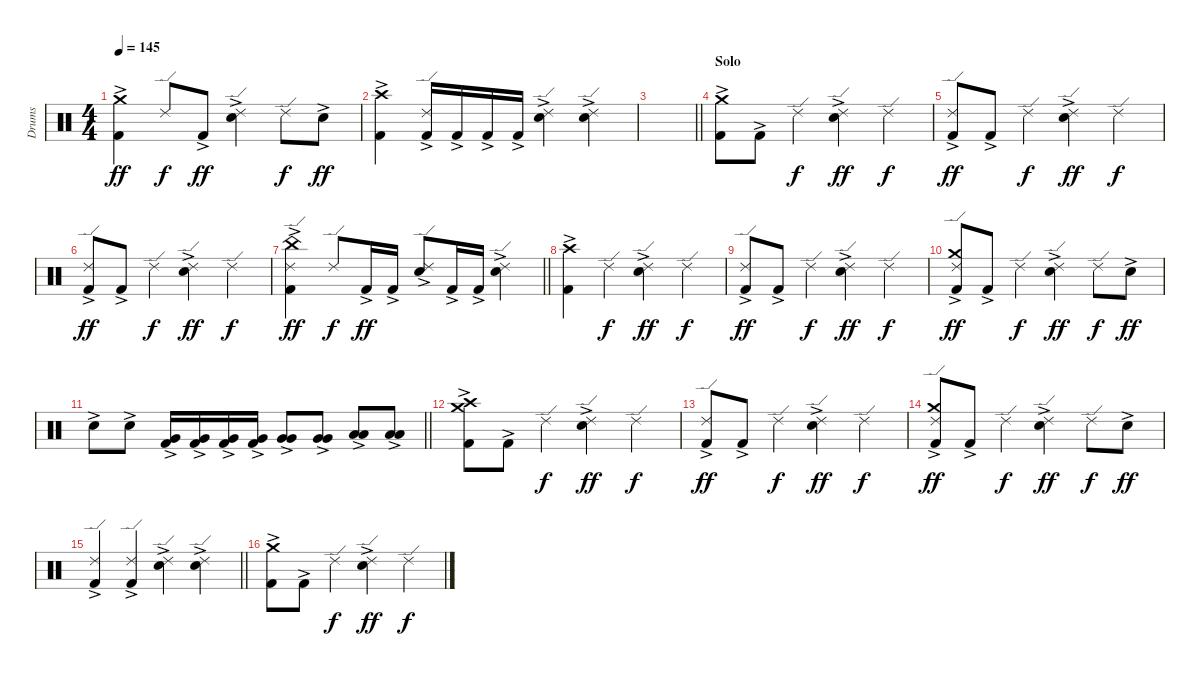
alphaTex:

\track ("Drums" "Drums") {instrument percussion}
\staff {score}
\articulation defaults
\ts (4 4)
\section ("" "")
\tempo 145
\clef neutral
\ks c
("Kick (hit) 2"{ac} "Crash medium (hit)").4{dy ff} "Ride (edge) 2".8{dy f} "Kick (hit) 2"{ac}.8{dy ff} ("Snare (hit) 2"{ac} "Ride (edge) 2").4 "Ride (edge) 2".8{dy f} "Snare (hit) 2"{ac}.8{dy ff} |
("Kick (hit) 2"{ac} "Crash high (hit)").4 ("Kick (hit) 2"{ac} "Ride (edge) 2").16 "Kick (hit) 2"{ac}.16 "Kick (hit) 2"{ac}.16 "Kick (hit) 2"{ac}.16 ("Snare (hit) 2"{ac} "Ride (edge) 2").4 ("Snare (hit) 2"{ac} "Ride (edge) 2").4 |
\barLineRight lightlight
|
\section ("" "Solo")
("Kick (hit) 2"{ac} "Crash medium (hit)").8 "Kick (hit) 2"{ac}.8 "Ride (edge) 2".4{dy f} ("Snare (hit) 2"{ac} "Ride (edge) 2").4{dy ff} "Ride (edge) 2".4{dy f} |
("Kick (hit) 2"{ac} "Ride (edge) 2").8{dy ff} "Kick (hit) 2"{ac}.8 "Ride (edge) 2".4{dy f} ("Snare (hit) 2"{ac} "Ride (edge) 2").4{dy ff} "Ride (edge) 2".4{dy f} |
("Kick (hit) 2"{ac} "Ride (edge) 2").8{dy ff} "Kick (hit) 2"{ac}.8 "Ride (edge) 2".4{dy f} ("Snare (hit) 2"{ac} "Ride (edge) 2").4{dy ff} "Ride (edge) 2".4{dy f} |
\barLineRight lightlight
("Kick (hit) 2"{ac} "Ride (edge) 2" "China (hit)").4{dy ff} "Ride (edge) 2".8{dy f} "Kick (hit) 2"{ac}.16{dy ff} "Kick (hit) 2"{ac}.16 ("Snare (hit) 2"{ac} "Ride (edge) 2").8 "Kick (hit) 2"{ac}.16 "Kick (hit) 2"{ac}.16 ("Snare (hit) 2"{ac} "Ride (edge) 2").4 |
\section ("" "")
("Kick (hit) 2"{ac} "Crash high (hit)").4 "Ride (edge) 2".4{dy f} ("Snare (hit) 2"{ac} "Ride (edge) 2").4{dy ff} "Ride (edge) 2".4{dy f} |
("Kick (hit) 2"{ac} "Ride (edge) 2").8{dy ff} "Kick (hit) 2"{ac}.8 "Ride (edge) 2".4{dy f} ("Snare (hit) 2"{ac} "Ride (edge) 2").4{dy ff} "Ride (edge) 2".4{dy f} |
("Kick (hit) 2"{ac} "Ride (edge) 2" "Crash medium (hit)").8{dy ff} "Kick (hit) 2"{ac}.8 "Ride (edge) 2".4{dy f} ("Snare (hit) 2"{ac} "Ride (edge) 2").4{dy ff} "Ride (edge) 2".8{dy f} "Snare (hit) 2"{ac}.8{dy ff} |
\barLineRight lightlight "Snare (hit) 2"{ac}.8 "Snare (hit) 2"{ac}.8
("Kick (hit) 2"{ac} "Very Low Tom (hit)").16 ("Kick (hit) 2"{ac} "Very Low Tom (hit)").16 ("Kick (hit) 2"{ac} "Very Low Tom (hit)").16 ("Kick (hit) 2"{ac} "Very Low Tom (hit)").16 ("Very Low Tom (hit)" "Very Low Tom (hit)"{ac}).8 ("Very Low Tom (hit)" "Very Low Tom (hit)"{ac}).8 ("Low Floor Tom (hit)" "Low Floor Tom (hit)"{ac}).8 ("Low Floor Tom (hit)" "Low Floor Tom (hit)"{ac}).8 |
\section ("" "")
("Kick (hit) 2"{ac} "Crash medium (hit)" "Crash high (hit)").8 "Kick (hit) 2"{ac}.8 "Ride (edge) 2".4{dy f} ("Snare (hit) 2"{ac} "Ride (edge) 2").4{dy ff} "Ride (edge) 2".4{dy f} |
("Kick (hit) 2"{ac} "Ride (edge) 2").8{dy ff} "Kick (hit) 2"{ac}.8 "Ride (edge) 2".4{dy f} ("Snare (hit) 2"{ac} "Ride (edge) 2").4{dy ff} "Ride (edge) 2".4{dy f} |
("Kick (hit) 2"{ac} "Ride (edge) 2" "Crash medium (hit)").8{dy ff} "Kick (hit) 2"{ac}.8 "Ride (edge) 2".4{dy f} ("Snare (hit) 2"{ac} "Ride (edge) 2").4{dy ff} "Ride (edge) 2".8{dy f} "Snare (hit) 2"{ac}.8{dy ff} |
\barLineRight lightlight
("Kick (hit) 2"{ac} "Ride (edge) 2").4 ("Kick (hit) 2"{ac} "Ride (edge) 2").4 ("Snare (hit) 2"{ac} "Ride (edge) 2").4 ("Snare (hit) 2"{ac} "Ride (edge) 2").4 |
\section ("" "")
("Kick (hit) 2"{ac} "Crash medium (hit)").8 "Kick (hit) 2"{ac}.8 "Ride (edge) 2".4{dy f} ("Snare (hit) 2"{ac} "Ride (edge) 2").4{dy ff} "Ride (edge) 2".4{dy f}
